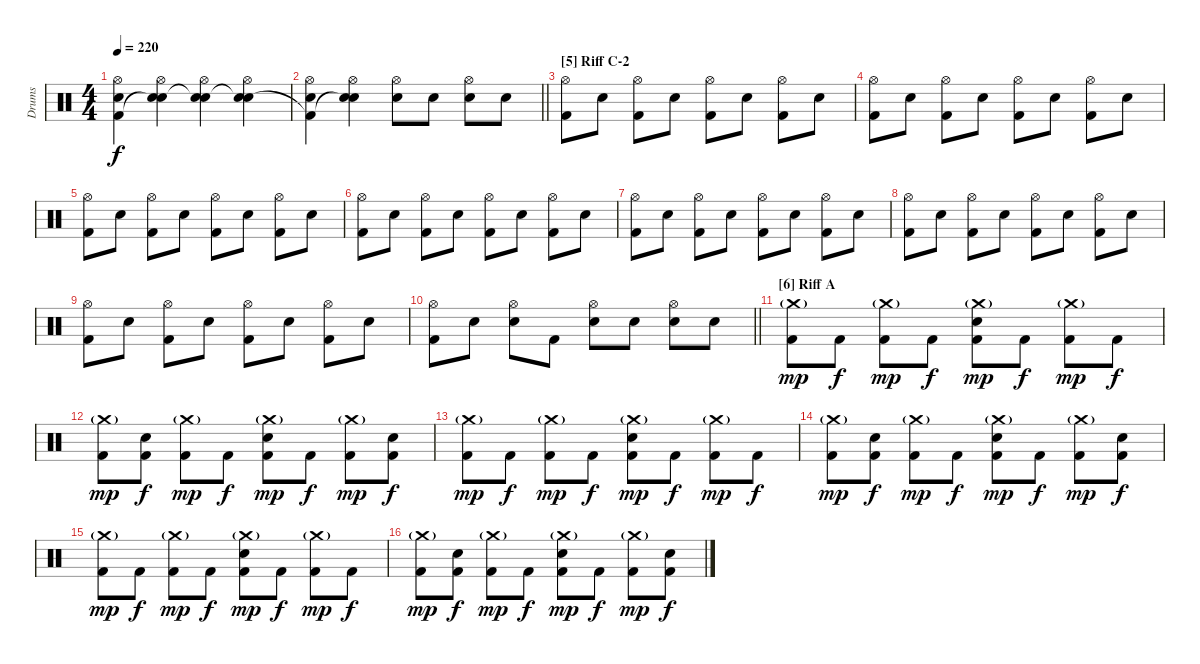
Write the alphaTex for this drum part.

\track ("Drums" "Drums") {instrument percussion}
\staff {score}
\articulation defaults
\ts (4 4)
\tempo 220
\clef neutral
\ks c
("Hi-Hat (open)" "Snare (hit) 2" "Kick (hit) 2"{t}).4{dy f} ("Hi-Hat (open)" "Snare (hit) 2" "Snare (hit)"{t}).4 ("Hi-Hat (open)" "Snare (hit) 2" "Snare (hit)"{t}).4 ("Hi-Hat (open)" "Snare (hit) 2" "Snare (hit)"{t}).4 |
\barLineRight lightlight
("Hi-Hat (open)" "Snare (hit) 2" "Kick (hit) 2"{t}).4 ("Hi-Hat (open)" "Snare (hit) 2" "Snare (hit)"{t}).4 ("Hi-Hat (open)" "Snare (hit) 2").8 "Snare (hit) 2".8 ("Hi-Hat (open)" "Snare (hit) 2").8 "Snare (hit) 2".8 |
\section ("" "[5] Riff C-2")
("Hi-Hat (open)" "Kick (hit) 2").8 "Snare (hit) 2".8 ("Hi-Hat (open)" "Kick (hit) 2").8 "Snare (hit) 2".8 ("Hi-Hat (open)" "Kick (hit) 2").8 "Snare (hit) 2".8 ("Hi-Hat (open)" "Kick (hit) 2").8 "Snare (hit) 2".8 |
("Hi-Hat (open)" "Kick (hit) 2").8 "Snare (hit) 2".8 ("Hi-Hat (open)" "Kick (hit) 2").8 "Snare (hit) 2".8 ("Hi-Hat (open)" "Kick (hit) 2").8 "Snare (hit) 2".8 ("Hi-Hat (open)" "Kick (hit) 2").8 "Snare (hit) 2".8 |
("Hi-Hat (open)" "Kick (hit) 2").8 "Snare (hit) 2".8 ("Hi-Hat (open)" "Kick (hit) 2").8 "Snare (hit) 2".8 ("Hi-Hat (open)" "Kick (hit) 2").8 "Snare (hit) 2".8 ("Hi-Hat (open)" "Kick (hit) 2").8 "Snare (hit) 2".8 |
("Hi-Hat (open)" "Kick (hit) 2").8 "Snare (hit) 2".8 ("Hi-Hat (open)" "Kick (hit) 2").8 "Snare (hit) 2".8 ("Hi-Hat (open)" "Kick (hit) 2").8 "Snare (hit) 2".8 ("Hi-Hat (open)" "Kick (hit) 2").8 "Snare (hit) 2".8 |
("Hi-Hat (open)" "Kick (hit) 2").8 "Snare (hit) 2".8 ("Hi-Hat (open)" "Kick (hit) 2").8 "Snare (hit) 2".8 ("Hi-Hat (open)" "Kick (hit) 2").8 "Snare (hit) 2".8 ("Hi-Hat (open)" "Kick (hit) 2").8 "Snare (hit) 2".8 |
("Hi-Hat (open)" "Kick (hit) 2").8 "Snare (hit) 2".8 ("Hi-Hat (open)" "Kick (hit) 2").8 "Snare (hit) 2".8 ("Hi-Hat (open)" "Kick (hit) 2").8 "Snare (hit) 2".8 ("Hi-Hat (open)" "Kick (hit) 2").8 "Snare (hit) 2".8 |
("Hi-Hat (open)" "Kick (hit) 2").8 "Snare (hit) 2".8 ("Hi-Hat (open)" "Kick (hit) 2").8 "Snare (hit) 2".8 ("Hi-Hat (open)" "Kick (hit) 2").8 "Snare (hit) 2".8 ("Hi-Hat (open)" "Kick (hit) 2").8 "Snare (hit) 2".8 |
\barLineRight lightlight
("Hi-Hat (open)" "Kick (hit) 2").8 "Snare (hit) 2".8 ("Hi-Hat (open)" "Snare (hit) 2").8 "Kick (hit) 2".8 ("Hi-Hat (open)" "Snare (hit) 2").8 "Snare (hit) 2".8 ("Hi-Hat (open)" "Snare (hit) 2").8 "Snare (hit) 2".8 |
\section ("" "[6] Riff A")
("Crash medium (hit)"{g} "Kick (hit) 2").8{dy mp} "Kick (hit) 2".8{dy f} ("Crash medium (hit)"{g} "Kick (hit) 2").8{dy mp} "Kick (hit) 2".8{dy f} ("Crash medium (hit)"{g} "Snare (hit) 2" "Kick (hit) 2").8{dy mp} "Kick (hit) 2".8{dy f} ("Crash medium (hit)"{g} "Kick (hit) 2").8{dy mp} "Kick (hit) 2".8{dy f} |
("Crash medium (hit)"{g} "Kick (hit) 2").8{dy mp} ("Snare (hit) 2" "Kick (hit) 2").8{dy f} ("Crash medium (hit)"{g} "Kick (hit) 2").8{dy mp} "Kick (hit) 2".8{dy f} ("Crash medium (hit)"{g} "Snare (hit) 2" "Kick (hit) 2").8{dy mp} "Kick (hit) 2".8{dy f} ("Crash medium (hit)"{g} "Kick (hit) 2").8{dy mp} ("Snare (hit) 2" "Kick (hit) 2").8{dy f} |
("Crash medium (hit)"{g} "Kick (hit) 2").8{dy mp} "Kick (hit) 2".8{dy f} ("Crash medium (hit)"{g} "Kick (hit) 2").8{dy mp} "Kick (hit) 2".8{dy f} ("Crash medium (hit)"{g} "Snare (hit) 2" "Kick (hit) 2").8{dy mp} "Kick (hit) 2".8{dy f} ("Crash medium (hit)"{g} "Kick (hit) 2").8{dy mp} "Kick (hit) 2".8{dy f} |
("Crash medium (hit)"{g} "Kick (hit) 2").8{dy mp} ("Snare (hit) 2" "Kick (hit) 2").8{dy f} ("Crash medium (hit)"{g} "Kick (hit) 2").8{dy mp} "Kick (hit) 2".8{dy f} ("Crash medium (hit)"{g} "Snare (hit) 2" "Kick (hit) 2").8{dy mp} "Kick (hit) 2".8{dy f} ("Crash medium (hit)"{g} "Kick (hit) 2").8{dy mp} ("Snare (hit) 2" "Kick (hit) 2").8{dy f} |
("Crash medium (hit)"{g} "Kick (hit) 2").8{dy mp} "Kick (hit) 2".8{dy f} ("Crash medium (hit)"{g} "Kick (hit) 2").8{dy mp} "Kick (hit) 2".8{dy f} ("Crash medium (hit)"{g} "Snare (hit) 2" "Kick (hit) 2").8{dy mp} "Kick (hit) 2".8{dy f} ("Crash medium (hit)"{g} "Kick (hit) 2").8{dy mp} "Kick (hit) 2".8{dy f} |
("Crash medium (hit)"{g} "Kick (hit) 2").8{dy mp} ("Snare (hit) 2" "Kick (hit) 2").8{dy f} ("Crash medium (hit)"{g} "Kick (hit) 2").8{dy mp} "Kick (hit) 2".8{dy f} ("Crash medium (hit)"{g} "Snare (hit) 2" "Kick (hit) 2").8{dy mp} "Kick (hit) 2".8{dy f} ("Crash medium (hit)"{g} "Kick (hit) 2").8{dy mp} ("Snare (hit) 2" "Kick (hit) 2").8{dy f}
